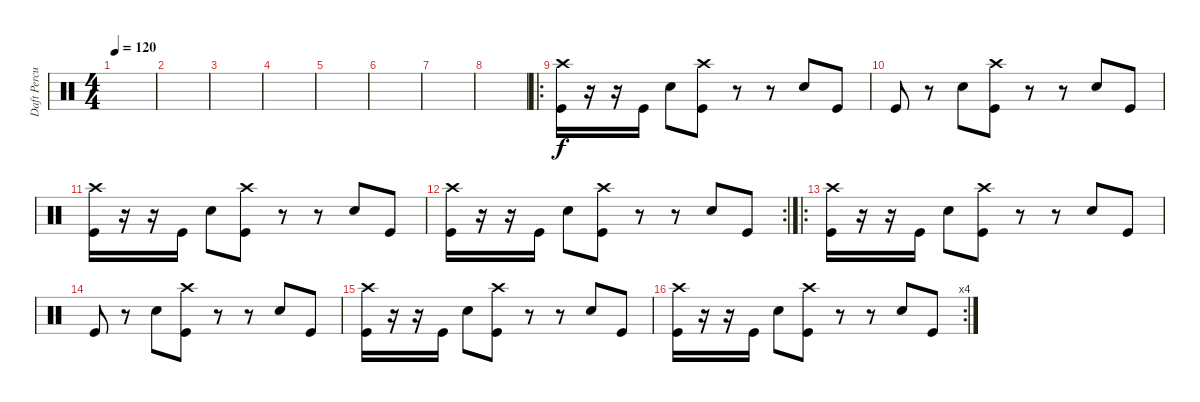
\track ("Daft Percussion 1" "Daft Percu") {instrument percussion}
\staff {score}
\articulation defaults
\ts (4 4)
\tempo 120
\clef neutral
\ks c
|
|
|
|
|
|
|
|
\ro
("Crash high (hit)" "Kick (hit)").16 r.16 r.16 "Kick (hit)".16 "Electric Snare (hit)".8 ("Crash high (hit)" "Kick (hit)").8 r.8 r.8 "Electric Snare (hit)".8 "Kick (hit)".8 |
"Kick (hit)".8 r.8 "Electric Snare (hit)".8 ("Crash high (hit)" "Kick (hit)").8 r.8 r.8 "Electric Snare (hit)".8 "Kick (hit)".8 |
("Crash high (hit)" "Kick (hit)").16 r.16 r.16 "Kick (hit)".16 "Electric Snare (hit)".8 ("Crash high (hit)" "Kick (hit)").8 r.8 r.8 "Electric Snare (hit)".8 "Kick (hit)".8 |
\rc 2
("Crash high (hit)" "Kick (hit)").16 r.16 r.16 "Kick (hit)".16 "Electric Snare (hit)".8 ("Crash high (hit)" "Kick (hit)").8 r.8 r.8 "Electric Snare (hit)".8 "Kick (hit)".8 |
\ro
("Crash high (hit)" "Kick (hit)").16 r.16 r.16 "Kick (hit)".16 "Electric Snare (hit)".8 ("Crash high (hit)" "Kick (hit)").8 r.8 r.8 "Electric Snare (hit)".8 "Kick (hit)".8 |
"Kick (hit)".8 r.8 "Electric Snare (hit)".8 ("Crash high (hit)" "Kick (hit)").8 r.8 r.8 "Electric Snare (hit)".8 "Kick (hit)".8 |
("Crash high (hit)" "Kick (hit)").16 r.16 r.16 "Kick (hit)".16 "Electric Snare (hit)".8 ("Crash high (hit)" "Kick (hit)").8 r.8 r.8 "Electric Snare (hit)".8 "Kick (hit)".8 |
\rc 4
("Crash high (hit)" "Kick (hit)").16 r.16 r.16 "Kick (hit)".16 "Electric Snare (hit)".8 ("Crash high (hit)" "Kick (hit)").8 r.8 r.8 "Electric Snare (hit)".8 "Kick (hit)".8
